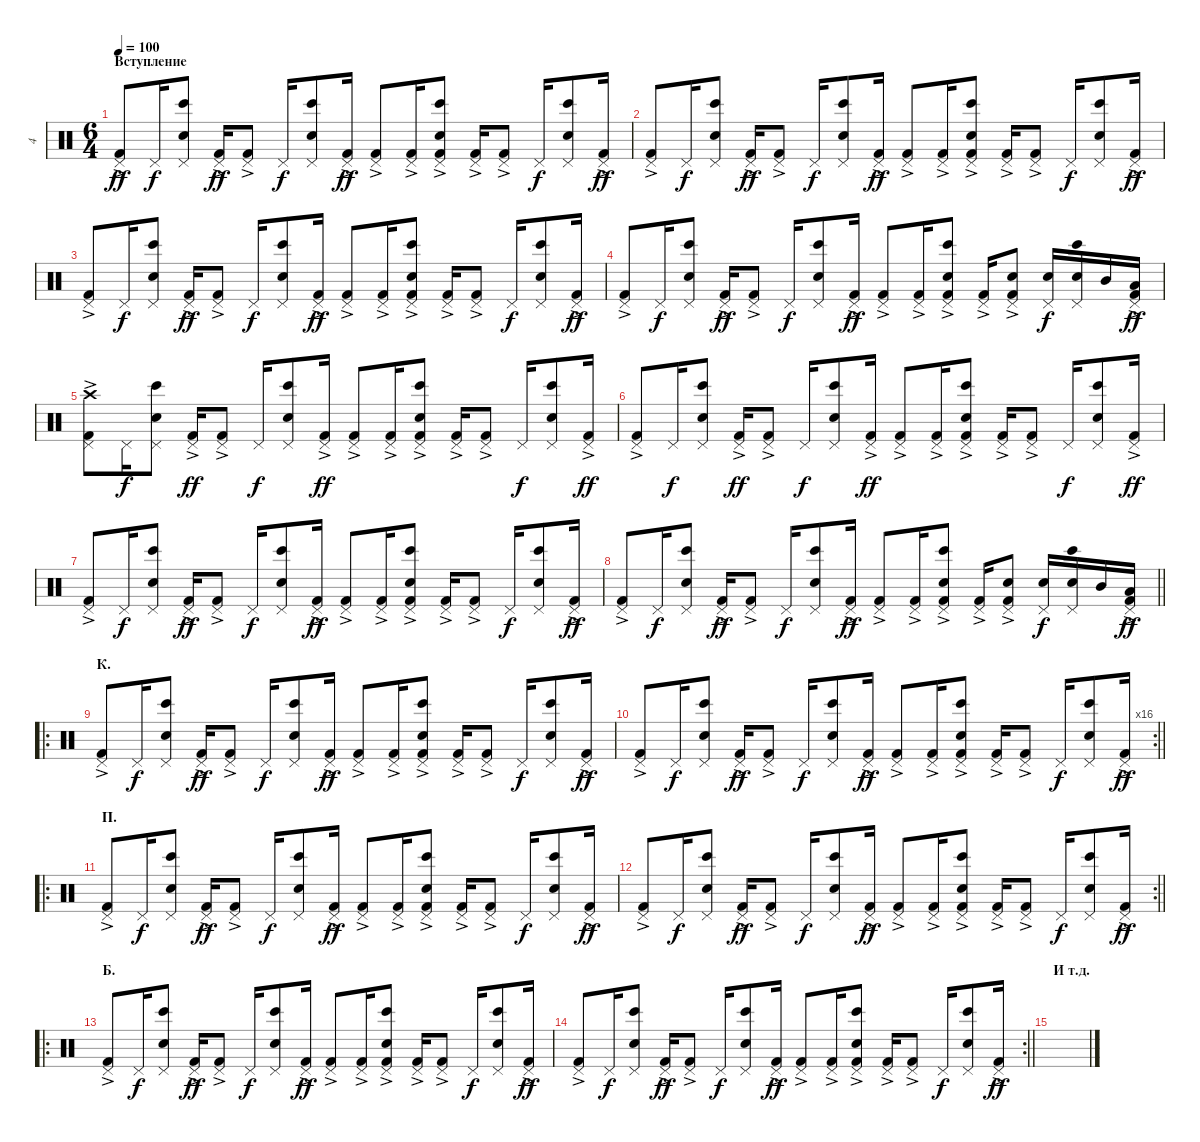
\track ("4" "4") {instrument percussion}
\staff {score}
\articulation defaults
\ts (6 4)
\section ("" "Вступление")
\tempo 100
\clef neutral
\ks c
("Kick (hit) 2"{ac} "Pedal Hi-Hat (hit)").8{dy ff} "Pedal Hi-Hat (hit)".16{dy f} ("Bongo High (hit)" "Snare (hit) 2" "Pedal Hi-Hat (hit)").8 ("Kick (hit) 2"{ac} "Pedal Hi-Hat (hit)").16{dy ff} ("Kick (hit) 2"{ac} "Pedal Hi-Hat (hit)").8 "Pedal Hi-Hat (hit)".16{dy f} ("Bongo High (hit)" "Snare (hit) 2" "Pedal Hi-Hat (hit)").8 ("Kick (hit) 2"{ac} "Pedal Hi-Hat (hit)").16{dy ff} ("Kick (hit) 2"{ac} "Pedal Hi-Hat (hit)").8 ("Kick (hit) 2"{ac} "Pedal Hi-Hat (hit)").16 ("Kick (hit) 2"{ac} "Bongo High (hit)" "Snare (hit) 2" "Pedal Hi-Hat (hit)").8 ("Kick (hit) 2"{ac} "Pedal Hi-Hat (hit)").16 ("Kick (hit) 2"{ac} "Pedal Hi-Hat (hit)").8 "Pedal Hi-Hat (hit)".16{dy f} ("Bongo High (hit)" "Snare (hit) 2" "Pedal Hi-Hat (hit)").8 ("Kick (hit) 2"{ac} "Pedal Hi-Hat (hit)").16{dy ff} |
("Kick (hit) 2"{ac} "Pedal Hi-Hat (hit)").8 "Pedal Hi-Hat (hit)".16{dy f} ("Bongo High (hit)" "Snare (hit) 2" "Pedal Hi-Hat (hit)").8 ("Kick (hit) 2"{ac} "Pedal Hi-Hat (hit)").16{dy ff} ("Kick (hit) 2"{ac} "Pedal Hi-Hat (hit)").8 "Pedal Hi-Hat (hit)".16{dy f} ("Bongo High (hit)" "Snare (hit) 2" "Pedal Hi-Hat (hit)").8 ("Kick (hit) 2"{ac} "Pedal Hi-Hat (hit)").16{dy ff} ("Kick (hit) 2"{ac} "Pedal Hi-Hat (hit)").8 ("Kick (hit) 2"{ac} "Pedal Hi-Hat (hit)").16 ("Kick (hit) 2"{ac} "Bongo High (hit)" "Snare (hit) 2" "Pedal Hi-Hat (hit)").8 ("Kick (hit) 2"{ac} "Pedal Hi-Hat (hit)").16 ("Kick (hit) 2"{ac} "Pedal Hi-Hat (hit)").8 "Pedal Hi-Hat (hit)".16{dy f} ("Bongo High (hit)" "Snare (hit) 2" "Pedal Hi-Hat (hit)").8 ("Kick (hit) 2"{ac} "Pedal Hi-Hat (hit)").16{dy ff} |
("Kick (hit) 2"{ac} "Pedal Hi-Hat (hit)").8 "Pedal Hi-Hat (hit)".16{dy f} ("Bongo High (hit)" "Snare (hit) 2" "Pedal Hi-Hat (hit)").8 ("Kick (hit) 2"{ac} "Pedal Hi-Hat (hit)").16{dy ff} ("Kick (hit) 2"{ac} "Pedal Hi-Hat (hit)").8 "Pedal Hi-Hat (hit)".16{dy f} ("Bongo High (hit)" "Snare (hit) 2" "Pedal Hi-Hat (hit)").8 ("Kick (hit) 2"{ac} "Pedal Hi-Hat (hit)").16{dy ff} ("Kick (hit) 2"{ac} "Pedal Hi-Hat (hit)").8 ("Kick (hit) 2"{ac} "Pedal Hi-Hat (hit)").16 ("Kick (hit) 2"{ac} "Bongo High (hit)" "Snare (hit) 2" "Pedal Hi-Hat (hit)").8 ("Kick (hit) 2"{ac} "Pedal Hi-Hat (hit)").16 ("Kick (hit) 2"{ac} "Pedal Hi-Hat (hit)").8 "Pedal Hi-Hat (hit)".16{dy f} ("Bongo High (hit)" "Snare (hit) 2" "Pedal Hi-Hat (hit)").8 ("Kick (hit) 2"{ac} "Pedal Hi-Hat (hit)").16{dy ff} |
("Kick (hit) 2"{ac} "Pedal Hi-Hat (hit)").8 "Pedal Hi-Hat (hit)".16{dy f} ("Bongo High (hit)" "Snare (hit) 2" "Pedal Hi-Hat (hit)").8 ("Kick (hit) 2"{ac} "Pedal Hi-Hat (hit)").16{dy ff} ("Kick (hit) 2"{ac} "Pedal Hi-Hat (hit)").8 "Pedal Hi-Hat (hit)".16{dy f} ("Bongo High (hit)" "Snare (hit) 2" "Pedal Hi-Hat (hit)").8 ("Kick (hit) 2"{ac} "Pedal Hi-Hat (hit)").16{dy ff} ("Kick (hit) 2"{ac} "Pedal Hi-Hat (hit)").8 ("Kick (hit) 2"{ac} "Pedal Hi-Hat (hit)").16 ("Kick (hit) 2"{ac} "Bongo High (hit)" "Snare (hit) 2" "Pedal Hi-Hat (hit)").8 ("Kick (hit) 2"{ac} "Pedal Hi-Hat (hit)").16 ("Kick (hit) 2"{ac} "Snare (hit) 2" "Pedal Hi-Hat (hit)").8 ("Snare (hit) 2" "Pedal Hi-Hat (hit)").16{dy f} ("Bongo High (hit)" "Snare (hit) 2" "Pedal Hi-Hat (hit)").16 "Mid Tom (hit)".16 ("Kick (hit) 2"{ac} "Low Tom (hit)" "Pedal Hi-Hat (hit)").16{dy ff} |
("Kick (hit) 2"{ac} "Pedal Hi-Hat (hit)" "Crash high (hit)").8 "Pedal Hi-Hat (hit)".16{dy f} ("Bongo High (hit)" "Snare (hit) 2" "Pedal Hi-Hat (hit)").8 ("Kick (hit) 2"{ac} "Pedal Hi-Hat (hit)").16{dy ff} ("Kick (hit) 2"{ac} "Pedal Hi-Hat (hit)").8 "Pedal Hi-Hat (hit)".16{dy f} ("Bongo High (hit)" "Snare (hit) 2" "Pedal Hi-Hat (hit)").8 ("Kick (hit) 2"{ac} "Pedal Hi-Hat (hit)").16{dy ff} ("Kick (hit) 2"{ac} "Pedal Hi-Hat (hit)").8 ("Kick (hit) 2"{ac} "Pedal Hi-Hat (hit)").16 ("Kick (hit) 2"{ac} "Bongo High (hit)" "Snare (hit) 2" "Pedal Hi-Hat (hit)").8 ("Kick (hit) 2"{ac} "Pedal Hi-Hat (hit)").16 ("Kick (hit) 2"{ac} "Pedal Hi-Hat (hit)").8 "Pedal Hi-Hat (hit)".16{dy f} ("Bongo High (hit)" "Snare (hit) 2" "Pedal Hi-Hat (hit)").8 ("Kick (hit) 2"{ac} "Pedal Hi-Hat (hit)").16{dy ff} |
("Kick (hit) 2"{ac} "Pedal Hi-Hat (hit)").8 "Pedal Hi-Hat (hit)".16{dy f} ("Bongo High (hit)" "Snare (hit) 2" "Pedal Hi-Hat (hit)").8 ("Kick (hit) 2"{ac} "Pedal Hi-Hat (hit)").16{dy ff} ("Kick (hit) 2"{ac} "Pedal Hi-Hat (hit)").8 "Pedal Hi-Hat (hit)".16{dy f} ("Bongo High (hit)" "Snare (hit) 2" "Pedal Hi-Hat (hit)").8 ("Kick (hit) 2"{ac} "Pedal Hi-Hat (hit)").16{dy ff} ("Kick (hit) 2"{ac} "Pedal Hi-Hat (hit)").8 ("Kick (hit) 2"{ac} "Pedal Hi-Hat (hit)").16 ("Kick (hit) 2"{ac} "Bongo High (hit)" "Snare (hit) 2" "Pedal Hi-Hat (hit)").8 ("Kick (hit) 2"{ac} "Pedal Hi-Hat (hit)").16 ("Kick (hit) 2"{ac} "Pedal Hi-Hat (hit)").8 "Pedal Hi-Hat (hit)".16{dy f} ("Bongo High (hit)" "Snare (hit) 2" "Pedal Hi-Hat (hit)").8 ("Kick (hit) 2"{ac} "Pedal Hi-Hat (hit)").16{dy ff} |
("Kick (hit) 2"{ac} "Pedal Hi-Hat (hit)").8 "Pedal Hi-Hat (hit)".16{dy f} ("Bongo High (hit)" "Snare (hit) 2" "Pedal Hi-Hat (hit)").8 ("Kick (hit) 2"{ac} "Pedal Hi-Hat (hit)").16{dy ff} ("Kick (hit) 2"{ac} "Pedal Hi-Hat (hit)").8 "Pedal Hi-Hat (hit)".16{dy f} ("Bongo High (hit)" "Snare (hit) 2" "Pedal Hi-Hat (hit)").8 ("Kick (hit) 2"{ac} "Pedal Hi-Hat (hit)").16{dy ff} ("Kick (hit) 2"{ac} "Pedal Hi-Hat (hit)").8 ("Kick (hit) 2"{ac} "Pedal Hi-Hat (hit)").16 ("Kick (hit) 2"{ac} "Bongo High (hit)" "Snare (hit) 2" "Pedal Hi-Hat (hit)").8 ("Kick (hit) 2"{ac} "Pedal Hi-Hat (hit)").16 ("Kick (hit) 2"{ac} "Pedal Hi-Hat (hit)").8 "Pedal Hi-Hat (hit)".16{dy f} ("Bongo High (hit)" "Snare (hit) 2" "Pedal Hi-Hat (hit)").8 ("Kick (hit) 2"{ac} "Pedal Hi-Hat (hit)").16{dy ff} |
\barLineRight lightlight
("Kick (hit) 2"{ac} "Pedal Hi-Hat (hit)").8 "Pedal Hi-Hat (hit)".16{dy f} ("Bongo High (hit)" "Snare (hit) 2" "Pedal Hi-Hat (hit)").8 ("Kick (hit) 2"{ac} "Pedal Hi-Hat (hit)").16{dy ff} ("Kick (hit) 2"{ac} "Pedal Hi-Hat (hit)").8 "Pedal Hi-Hat (hit)".16{dy f} ("Bongo High (hit)" "Snare (hit) 2" "Pedal Hi-Hat (hit)").8 ("Kick (hit) 2"{ac} "Pedal Hi-Hat (hit)").16{dy ff} ("Kick (hit) 2"{ac} "Pedal Hi-Hat (hit)").8 ("Kick (hit) 2"{ac} "Pedal Hi-Hat (hit)").16 ("Kick (hit) 2"{ac} "Bongo High (hit)" "Snare (hit) 2" "Pedal Hi-Hat (hit)").8 ("Kick (hit) 2"{ac} "Pedal Hi-Hat (hit)").16 ("Kick (hit) 2"{ac} "Snare (hit) 2" "Pedal Hi-Hat (hit)").8 ("Snare (hit) 2" "Pedal Hi-Hat (hit)").16{dy f} ("Bongo High (hit)" "Snare (hit) 2" "Pedal Hi-Hat (hit)").16 "Mid Tom (hit)".16 ("Kick (hit) 2"{ac} "Low Tom (hit)" "Pedal Hi-Hat (hit)").16{dy ff} |
\ro
\section ("" "К.")
("Kick (hit) 2"{ac} "Pedal Hi-Hat (hit)").8 "Pedal Hi-Hat (hit)".16{dy f} ("Bongo High (hit)" "Snare (hit) 2" "Pedal Hi-Hat (hit)").8 ("Kick (hit) 2"{ac} "Pedal Hi-Hat (hit)").16{dy ff} ("Kick (hit) 2"{ac} "Pedal Hi-Hat (hit)").8 "Pedal Hi-Hat (hit)".16{dy f} ("Bongo High (hit)" "Snare (hit) 2" "Pedal Hi-Hat (hit)").8 ("Kick (hit) 2"{ac} "Pedal Hi-Hat (hit)").16{dy ff} ("Kick (hit) 2"{ac} "Pedal Hi-Hat (hit)").8 ("Kick (hit) 2"{ac} "Pedal Hi-Hat (hit)").16 ("Kick (hit) 2"{ac} "Bongo High (hit)" "Snare (hit) 2" "Pedal Hi-Hat (hit)").8 ("Kick (hit) 2"{ac} "Pedal Hi-Hat (hit)").16 ("Kick (hit) 2"{ac} "Pedal Hi-Hat (hit)").8 "Pedal Hi-Hat (hit)".16{dy f} ("Bongo High (hit)" "Snare (hit) 2" "Pedal Hi-Hat (hit)").8 ("Kick (hit) 2"{ac} "Pedal Hi-Hat (hit)").16{dy ff} |
\rc 16
\barLineRight lightlight
("Kick (hit) 2"{ac} "Pedal Hi-Hat (hit)").8 "Pedal Hi-Hat (hit)".16{dy f} ("Bongo High (hit)" "Snare (hit) 2" "Pedal Hi-Hat (hit)").8 ("Kick (hit) 2"{ac} "Pedal Hi-Hat (hit)").16{dy ff} ("Kick (hit) 2"{ac} "Pedal Hi-Hat (hit)").8 "Pedal Hi-Hat (hit)".16{dy f} ("Bongo High (hit)" "Snare (hit) 2" "Pedal Hi-Hat (hit)").8 ("Kick (hit) 2"{ac} "Pedal Hi-Hat (hit)").16{dy ff} ("Kick (hit) 2"{ac} "Pedal Hi-Hat (hit)").8 ("Kick (hit) 2"{ac} "Pedal Hi-Hat (hit)").16 ("Kick (hit) 2"{ac} "Bongo High (hit)" "Snare (hit) 2" "Pedal Hi-Hat (hit)").8 ("Kick (hit) 2"{ac} "Pedal Hi-Hat (hit)").16 ("Kick (hit) 2"{ac} "Pedal Hi-Hat (hit)").8 "Pedal Hi-Hat (hit)".16{dy f} ("Bongo High (hit)" "Snare (hit) 2" "Pedal Hi-Hat (hit)").8 ("Kick (hit) 2"{ac} "Pedal Hi-Hat (hit)").16{dy ff} |
\ro
\section ("" "П.")
("Kick (hit) 2"{ac} "Pedal Hi-Hat (hit)").8 "Pedal Hi-Hat (hit)".16{dy f} ("Bongo High (hit)" "Snare (hit) 2" "Pedal Hi-Hat (hit)").8 ("Kick (hit) 2"{ac} "Pedal Hi-Hat (hit)").16{dy ff} ("Kick (hit) 2"{ac} "Pedal Hi-Hat (hit)").8 "Pedal Hi-Hat (hit)".16{dy f} ("Bongo High (hit)" "Snare (hit) 2" "Pedal Hi-Hat (hit)").8 ("Kick (hit) 2"{ac} "Pedal Hi-Hat (hit)").16{dy ff} ("Kick (hit) 2"{ac} "Pedal Hi-Hat (hit)").8 ("Kick (hit) 2"{ac} "Pedal Hi-Hat (hit)").16 ("Kick (hit) 2"{ac} "Bongo High (hit)" "Snare (hit) 2" "Pedal Hi-Hat (hit)").8 ("Kick (hit) 2"{ac} "Pedal Hi-Hat (hit)").16 ("Kick (hit) 2"{ac} "Pedal Hi-Hat (hit)").8 "Pedal Hi-Hat (hit)".16{dy f} ("Bongo High (hit)" "Snare (hit) 2" "Pedal Hi-Hat (hit)").8 ("Kick (hit) 2"{ac} "Pedal Hi-Hat (hit)").16{dy ff} |
\rc 2
\barLineRight lightlight
("Kick (hit) 2"{ac} "Pedal Hi-Hat (hit)").8 "Pedal Hi-Hat (hit)".16{dy f} ("Bongo High (hit)" "Snare (hit) 2" "Pedal Hi-Hat (hit)").8 ("Kick (hit) 2"{ac} "Pedal Hi-Hat (hit)").16{dy ff} ("Kick (hit) 2"{ac} "Pedal Hi-Hat (hit)").8 "Pedal Hi-Hat (hit)".16{dy f} ("Bongo High (hit)" "Snare (hit) 2" "Pedal Hi-Hat (hit)").8 ("Kick (hit) 2"{ac} "Pedal Hi-Hat (hit)").16{dy ff} ("Kick (hit) 2"{ac} "Pedal Hi-Hat (hit)").8 ("Kick (hit) 2"{ac} "Pedal Hi-Hat (hit)").16 ("Kick (hit) 2"{ac} "Bongo High (hit)" "Snare (hit) 2" "Pedal Hi-Hat (hit)").8 ("Kick (hit) 2"{ac} "Pedal Hi-Hat (hit)").16 ("Kick (hit) 2"{ac} "Pedal Hi-Hat (hit)").8 "Pedal Hi-Hat (hit)".16{dy f} ("Bongo High (hit)" "Snare (hit) 2" "Pedal Hi-Hat (hit)").8 ("Kick (hit) 2"{ac} "Pedal Hi-Hat (hit)").16{dy ff} |
\ro
\section ("" "Б.")
("Kick (hit) 2"{ac} "Pedal Hi-Hat (hit)").8 "Pedal Hi-Hat (hit)".16{dy f} ("Bongo High (hit)" "Snare (hit) 2" "Pedal Hi-Hat (hit)").8 ("Kick (hit) 2"{ac} "Pedal Hi-Hat (hit)").16{dy ff} ("Kick (hit) 2"{ac} "Pedal Hi-Hat (hit)").8 "Pedal Hi-Hat (hit)".16{dy f} ("Bongo High (hit)" "Snare (hit) 2" "Pedal Hi-Hat (hit)").8 ("Kick (hit) 2"{ac} "Pedal Hi-Hat (hit)").16{dy ff} ("Kick (hit) 2"{ac} "Pedal Hi-Hat (hit)").8 ("Kick (hit) 2"{ac} "Pedal Hi-Hat (hit)").16 ("Kick (hit) 2"{ac} "Bongo High (hit)" "Snare (hit) 2" "Pedal Hi-Hat (hit)").8 ("Kick (hit) 2"{ac} "Pedal Hi-Hat (hit)").16 ("Kick (hit) 2"{ac} "Pedal Hi-Hat (hit)").8 "Pedal Hi-Hat (hit)".16{dy f} ("Bongo High (hit)" "Snare (hit) 2" "Pedal Hi-Hat (hit)").8 ("Kick (hit) 2"{ac} "Pedal Hi-Hat (hit)").16{dy ff} |
\rc 2
\barLineRight lightlight
("Kick (hit) 2"{ac} "Pedal Hi-Hat (hit)").8 "Pedal Hi-Hat (hit)".16{dy f} ("Bongo High (hit)" "Snare (hit) 2" "Pedal Hi-Hat (hit)").8 ("Kick (hit) 2"{ac} "Pedal Hi-Hat (hit)").16{dy ff} ("Kick (hit) 2"{ac} "Pedal Hi-Hat (hit)").8 "Pedal Hi-Hat (hit)".16{dy f} ("Bongo High (hit)" "Snare (hit) 2" "Pedal Hi-Hat (hit)").8 ("Kick (hit) 2"{ac} "Pedal Hi-Hat (hit)").16{dy ff} ("Kick (hit) 2"{ac} "Pedal Hi-Hat (hit)").8 ("Kick (hit) 2"{ac} "Pedal Hi-Hat (hit)").16 ("Kick (hit) 2"{ac} "Bongo High (hit)" "Snare (hit) 2" "Pedal Hi-Hat (hit)").8 ("Kick (hit) 2"{ac} "Pedal Hi-Hat (hit)").16 ("Kick (hit) 2"{ac} "Pedal Hi-Hat (hit)").8 "Pedal Hi-Hat (hit)".16{dy f} ("Bongo High (hit)" "Snare (hit) 2" "Pedal Hi-Hat (hit)").8 ("Kick (hit) 2"{ac} "Pedal Hi-Hat (hit)").16{dy ff} |
\section ("" "И т.д.")
